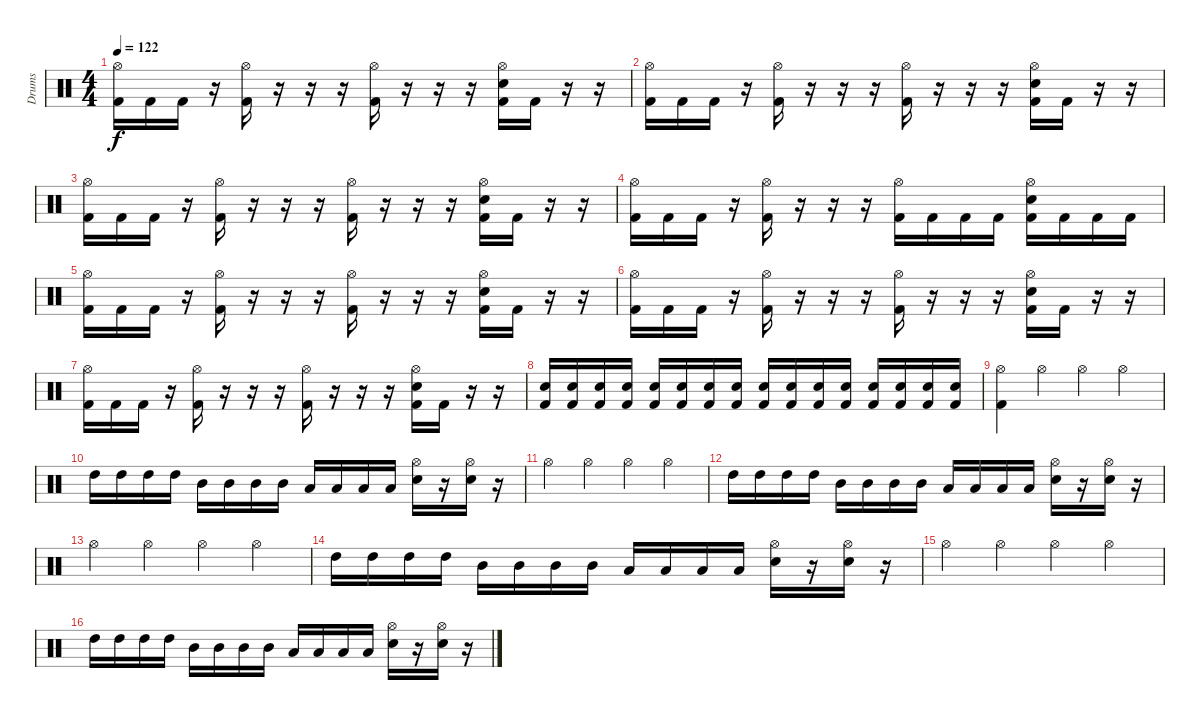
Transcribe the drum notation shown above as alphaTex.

\track ("Drums" "Drums") {instrument percussion}
\staff {score}
\articulation defaults
\ts (4 4)
\tempo 122
\clef neutral
\ks c
("Hi-Hat (open)" "Kick (hit) 2").16{dy f} "Kick (hit) 2".16 "Kick (hit) 2".16 r.16 ("Hi-Hat (open)" "Kick (hit) 2").16 r.16 r.16 r.16 ("Hi-Hat (open)" "Kick (hit) 2").16 r.16 r.16 r.16 ("Hi-Hat (open)" "Snare (hit) 2" "Kick (hit) 2").16 "Kick (hit) 2".16 r.16 r.16 |
("Hi-Hat (open)" "Kick (hit) 2").16 "Kick (hit) 2".16 "Kick (hit) 2".16 r.16 ("Hi-Hat (open)" "Kick (hit) 2").16 r.16 r.16 r.16 ("Hi-Hat (open)" "Kick (hit) 2").16 r.16 r.16 r.16 ("Hi-Hat (open)" "Snare (hit) 2" "Kick (hit) 2").16 "Kick (hit) 2".16 r.16 r.16 |
("Hi-Hat (open)" "Kick (hit) 2").16 "Kick (hit) 2".16 "Kick (hit) 2".16 r.16 ("Hi-Hat (open)" "Kick (hit) 2").16 r.16 r.16 r.16 ("Hi-Hat (open)" "Kick (hit) 2").16 r.16 r.16 r.16 ("Hi-Hat (open)" "Snare (hit) 2" "Kick (hit) 2").16 "Kick (hit) 2".16 r.16 r.16 |
("Hi-Hat (open)" "Kick (hit) 2").16 "Kick (hit) 2".16 "Kick (hit) 2".16 r.16 ("Hi-Hat (open)" "Kick (hit) 2").16 r.16 r.16 r.16 ("Hi-Hat (open)" "Kick (hit) 2").16 "Kick (hit) 2".16 "Kick (hit) 2".16 "Kick (hit) 2".16 ("Hi-Hat (open)" "Snare (hit) 2" "Kick (hit) 2").16 "Kick (hit) 2".16 "Kick (hit) 2".16 "Kick (hit) 2".16 |
("Hi-Hat (open)" "Kick (hit) 2").16 "Kick (hit) 2".16 "Kick (hit) 2".16 r.16 ("Hi-Hat (open)" "Kick (hit) 2").16 r.16 r.16 r.16 ("Hi-Hat (open)" "Kick (hit) 2").16 r.16 r.16 r.16 ("Hi-Hat (open)" "Snare (hit) 2" "Kick (hit) 2").16 "Kick (hit) 2".16 r.16 r.16 |
("Hi-Hat (open)" "Kick (hit) 2").16 "Kick (hit) 2".16 "Kick (hit) 2".16 r.16 ("Hi-Hat (open)" "Kick (hit) 2").16 r.16 r.16 r.16 ("Hi-Hat (open)" "Kick (hit) 2").16 r.16 r.16 r.16 ("Hi-Hat (open)" "Snare (hit) 2" "Kick (hit) 2").16 "Kick (hit) 2".16 r.16 r.16 |
("Hi-Hat (open)" "Kick (hit) 2").16 "Kick (hit) 2".16 "Kick (hit) 2".16 r.16 ("Hi-Hat (open)" "Kick (hit) 2").16 r.16 r.16 r.16 ("Hi-Hat (open)" "Kick (hit) 2").16 r.16 r.16 r.16 ("Hi-Hat (open)" "Snare (hit) 2" "Kick (hit) 2").16 "Kick (hit) 2".16 r.16 r.16 |
("Snare (hit) 2" "Kick (hit) 2").16 ("Snare (hit) 2" "Kick (hit) 2").16 ("Snare (hit) 2" "Kick (hit) 2").16 ("Snare (hit) 2" "Kick (hit) 2").16 ("Snare (hit) 2" "Kick (hit) 2").16 ("Snare (hit) 2" "Kick (hit) 2").16 ("Snare (hit) 2" "Kick (hit) 2").16 ("Snare (hit) 2" "Kick (hit) 2").16 ("Snare (hit) 2" "Kick (hit) 2").16 ("Snare (hit) 2" "Kick (hit) 2").16 ("Snare (hit) 2" "Kick (hit) 2").16 ("Snare (hit) 2" "Kick (hit) 2").16 ("Snare (hit) 2" "Kick (hit) 2").16 ("Snare (hit) 2" "Kick (hit) 2").16 ("Snare (hit) 2" "Kick (hit) 2").16 ("Snare (hit) 2" "Kick (hit) 2").16 |
("Hi-Hat (open)" "Kick (hit) 2").4 "Hi-Hat (open)".4 "Hi-Hat (open)".4 "Hi-Hat (open)".4 |
"High Tom (hit)".16 "High Tom (hit)".16 "High Tom (hit)".16 "High Tom (hit)".16 "Mid Tom (hit)".16 "Mid Tom (hit)".16 "Mid Tom (hit)".16 "Mid Tom (hit)".16 "Low Tom (hit)".16 "Low Tom (hit)".16 "Low Tom (hit)".16 "Low Tom (hit)".16 ("Hi-Hat (open)" "Snare (hit) 2").16 r.16 ("Hi-Hat (open)" "Snare (hit) 2").16 r.16 |
"Hi-Hat (open)".4 "Hi-Hat (open)".4 "Hi-Hat (open)".4 "Hi-Hat (open)".4 |
"High Tom (hit)".16 "High Tom (hit)".16 "High Tom (hit)".16 "High Tom (hit)".16 "Mid Tom (hit)".16 "Mid Tom (hit)".16 "Mid Tom (hit)".16 "Mid Tom (hit)".16 "Low Tom (hit)".16 "Low Tom (hit)".16 "Low Tom (hit)".16 "Low Tom (hit)".16 ("Hi-Hat (open)" "Snare (hit) 2").16 r.16 ("Hi-Hat (open)" "Snare (hit) 2").16 r.16 |
"Hi-Hat (open)".4 "Hi-Hat (open)".4 "Hi-Hat (open)".4 "Hi-Hat (open)".4 |
"High Tom (hit)".16 "High Tom (hit)".16 "High Tom (hit)".16 "High Tom (hit)".16 "Mid Tom (hit)".16 "Mid Tom (hit)".16 "Mid Tom (hit)".16 "Mid Tom (hit)".16 "Low Tom (hit)".16 "Low Tom (hit)".16 "Low Tom (hit)".16 "Low Tom (hit)".16 ("Hi-Hat (open)" "Snare (hit) 2").16 r.16 ("Hi-Hat (open)" "Snare (hit) 2").16 r.16 |
"Hi-Hat (open)".4 "Hi-Hat (open)".4 "Hi-Hat (open)".4 "Hi-Hat (open)".4 |
"High Tom (hit)".16 "High Tom (hit)".16 "High Tom (hit)".16 "High Tom (hit)".16 "Mid Tom (hit)".16 "Mid Tom (hit)".16 "Mid Tom (hit)".16 "Mid Tom (hit)".16 "Low Tom (hit)".16 "Low Tom (hit)".16 "Low Tom (hit)".16 "Low Tom (hit)".16 ("Hi-Hat (open)" "Snare (hit) 2").16 r.16 ("Hi-Hat (open)" "Snare (hit) 2").16 r.16
